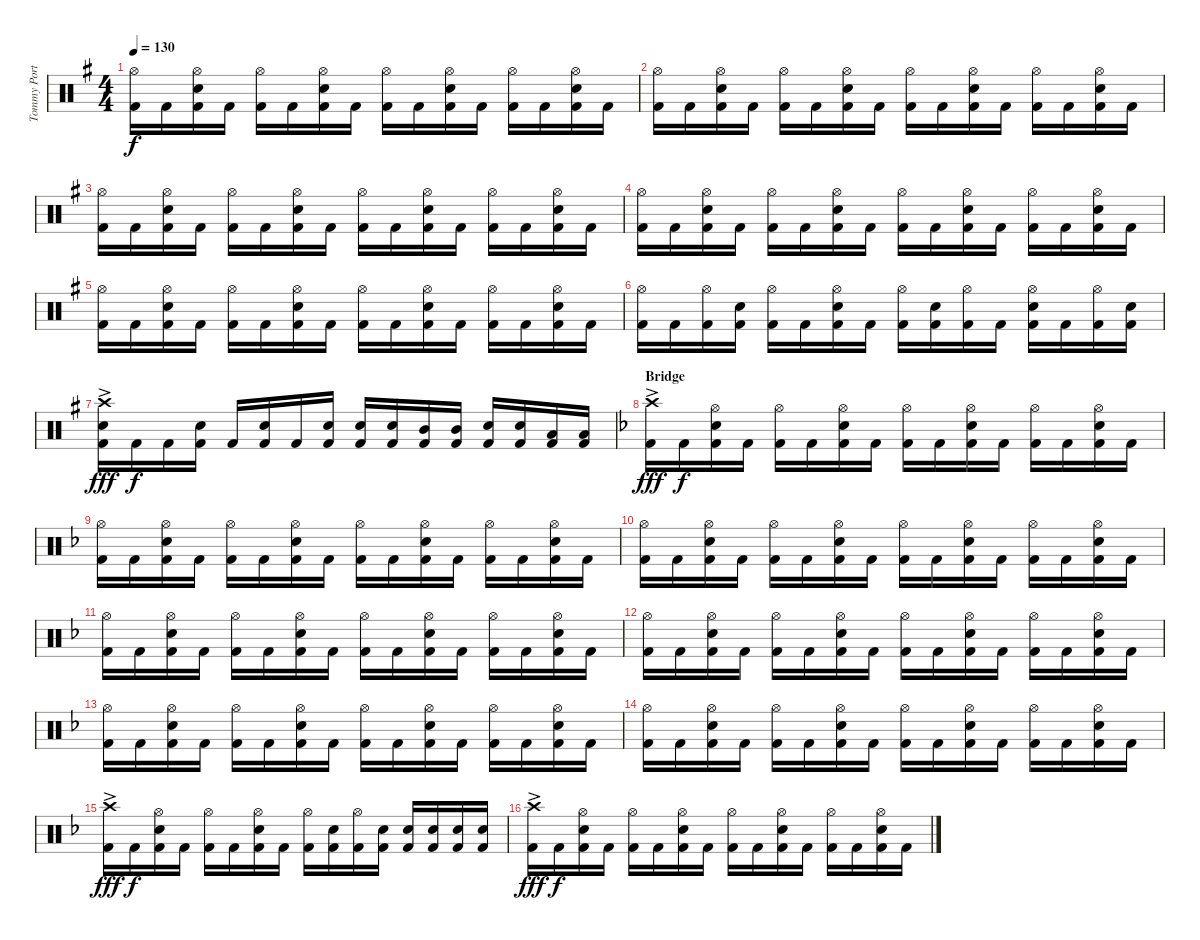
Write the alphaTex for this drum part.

\track ("Tommy Portimo" "Tommy Port") {instrument percussion}
\staff {score}
\articulation defaults
\ts (4 4)
\tempo 130
\clef neutral
\ks eminor
("Hi-Hat (open)" "Kick (hit) 2").16{dy f} "Kick (hit) 2".16 ("Hi-Hat (open)" "Electric Snare (hit)" "Kick (hit) 2").16 "Kick (hit) 2".16 ("Hi-Hat (open)" "Kick (hit) 2").16 "Kick (hit) 2".16 ("Hi-Hat (open)" "Electric Snare (hit)" "Kick (hit) 2").16 "Kick (hit) 2".16 ("Hi-Hat (open)" "Kick (hit) 2").16 "Kick (hit) 2".16 ("Hi-Hat (open)" "Electric Snare (hit)" "Kick (hit) 2").16 "Kick (hit) 2".16 ("Hi-Hat (open)" "Kick (hit) 2").16 "Kick (hit) 2".16 ("Hi-Hat (open)" "Electric Snare (hit)" "Kick (hit) 2").16 "Kick (hit) 2".16 |
("Hi-Hat (open)" "Kick (hit) 2").16 "Kick (hit) 2".16 ("Hi-Hat (open)" "Electric Snare (hit)" "Kick (hit) 2").16 "Kick (hit) 2".16 ("Hi-Hat (open)" "Kick (hit) 2").16 "Kick (hit) 2".16 ("Hi-Hat (open)" "Electric Snare (hit)" "Kick (hit) 2").16 "Kick (hit) 2".16 ("Hi-Hat (open)" "Kick (hit) 2").16 "Kick (hit) 2".16 ("Hi-Hat (open)" "Electric Snare (hit)" "Kick (hit) 2").16 "Kick (hit) 2".16 ("Hi-Hat (open)" "Kick (hit) 2").16 "Kick (hit) 2".16 ("Hi-Hat (open)" "Electric Snare (hit)" "Kick (hit) 2").16 "Kick (hit) 2".16 |
("Hi-Hat (open)" "Kick (hit) 2").16 "Kick (hit) 2".16 ("Hi-Hat (open)" "Electric Snare (hit)" "Kick (hit) 2").16 "Kick (hit) 2".16 ("Hi-Hat (open)" "Kick (hit) 2").16 "Kick (hit) 2".16 ("Hi-Hat (open)" "Electric Snare (hit)" "Kick (hit) 2").16 "Kick (hit) 2".16 ("Hi-Hat (open)" "Kick (hit) 2").16 "Kick (hit) 2".16 ("Hi-Hat (open)" "Electric Snare (hit)" "Kick (hit) 2").16 "Kick (hit) 2".16 ("Hi-Hat (open)" "Kick (hit) 2").16 "Kick (hit) 2".16 ("Hi-Hat (open)" "Electric Snare (hit)" "Kick (hit) 2").16 "Kick (hit) 2".16 |
("Hi-Hat (open)" "Kick (hit) 2").16 "Kick (hit) 2".16 ("Hi-Hat (open)" "Electric Snare (hit)" "Kick (hit) 2").16 "Kick (hit) 2".16 ("Hi-Hat (open)" "Kick (hit) 2").16 "Kick (hit) 2".16 ("Hi-Hat (open)" "Electric Snare (hit)" "Kick (hit) 2").16 "Kick (hit) 2".16 ("Hi-Hat (open)" "Kick (hit) 2").16 "Kick (hit) 2".16 ("Hi-Hat (open)" "Electric Snare (hit)" "Kick (hit) 2").16 "Kick (hit) 2".16 ("Hi-Hat (open)" "Kick (hit) 2").16 "Kick (hit) 2".16 ("Hi-Hat (open)" "Electric Snare (hit)" "Kick (hit) 2").16 "Kick (hit) 2".16 |
("Hi-Hat (open)" "Kick (hit) 2").16 "Kick (hit) 2".16 ("Hi-Hat (open)" "Electric Snare (hit)" "Kick (hit) 2").16 "Kick (hit) 2".16 ("Hi-Hat (open)" "Kick (hit) 2").16 "Kick (hit) 2".16 ("Hi-Hat (open)" "Electric Snare (hit)" "Kick (hit) 2").16 "Kick (hit) 2".16 ("Hi-Hat (open)" "Kick (hit) 2").16 "Kick (hit) 2".16 ("Hi-Hat (open)" "Electric Snare (hit)" "Kick (hit) 2").16 "Kick (hit) 2".16 ("Hi-Hat (open)" "Kick (hit) 2").16 "Kick (hit) 2".16 ("Hi-Hat (open)" "Electric Snare (hit)" "Kick (hit) 2").16 "Kick (hit) 2".16 |
("Hi-Hat (open)" "Kick (hit) 2").16 "Kick (hit) 2".16 ("Hi-Hat (open)" "Kick (hit) 2").16 ("Electric Snare (hit)" "Kick (hit) 2").16 ("Hi-Hat (open)" "Kick (hit) 2").16 "Kick (hit) 2".16 ("Hi-Hat (open)" "Electric Snare (hit)" "Kick (hit) 2").16 "Kick (hit) 2".16 ("Hi-Hat (open)" "Kick (hit) 2").16 ("Electric Snare (hit)" "Kick (hit) 2").16 ("Hi-Hat (open)" "Kick (hit) 2").16 "Kick (hit) 2".16 ("Hi-Hat (open)" "Electric Snare (hit)" "Kick (hit) 2").16 "Kick (hit) 2".16 ("Hi-Hat (open)" "Kick (hit) 2").16 ("Electric Snare (hit)" "Kick (hit) 2").16 |
("Crash high (hit)"{ac} "Electric Snare (hit)" "Kick (hit) 2").16{dy fff} "Kick (hit) 2".16{dy f} "Kick (hit) 2".16 ("Electric Snare (hit)" "Kick (hit) 2").16 "Kick (hit) 2".16 ("Electric Snare (hit)" "Kick (hit) 2").16 "Kick (hit) 2".16 ("Electric Snare (hit)" "Kick (hit) 2").16 ("Electric Snare (hit)" "Kick (hit) 2").16 ("Electric Snare (hit)" "Kick (hit) 2").16 ("Mid Tom (hit)" "Kick (hit) 2").16 ("Mid Tom (hit)" "Kick (hit) 2").16 ("Electric Snare (hit)" "Kick (hit) 2").16 ("Electric Snare (hit)" "Kick (hit) 2").16 ("Low Tom (hit)" "Kick (hit) 2").16 ("Low Tom (hit)" "Kick (hit) 2").16 |
\section ("" "Bridge")
\ks dminor
("Crash high (hit)"{ac} "Kick (hit) 2").16{dy fff} "Kick (hit) 2".16{dy f} ("Hi-Hat (open)" "Electric Snare (hit)" "Kick (hit) 2").16 "Kick (hit) 2".16 ("Hi-Hat (open)" "Kick (hit) 2").16 "Kick (hit) 2".16 ("Hi-Hat (open)" "Electric Snare (hit)" "Kick (hit) 2").16 "Kick (hit) 2".16 ("Hi-Hat (open)" "Kick (hit) 2").16 "Kick (hit) 2".16 ("Hi-Hat (open)" "Electric Snare (hit)" "Kick (hit) 2").16 "Kick (hit) 2".16 ("Hi-Hat (open)" "Kick (hit) 2").16 "Kick (hit) 2".16 ("Hi-Hat (open)" "Electric Snare (hit)" "Kick (hit) 2").16 "Kick (hit) 2".16 |
("Hi-Hat (open)" "Kick (hit) 2").16 "Kick (hit) 2".16 ("Hi-Hat (open)" "Electric Snare (hit)" "Kick (hit) 2").16 "Kick (hit) 2".16 ("Hi-Hat (open)" "Kick (hit) 2").16 "Kick (hit) 2".16 ("Hi-Hat (open)" "Electric Snare (hit)" "Kick (hit) 2").16 "Kick (hit) 2".16 ("Hi-Hat (open)" "Kick (hit) 2").16 "Kick (hit) 2".16 ("Hi-Hat (open)" "Electric Snare (hit)" "Kick (hit) 2").16 "Kick (hit) 2".16 ("Hi-Hat (open)" "Kick (hit) 2").16 "Kick (hit) 2".16 ("Hi-Hat (open)" "Electric Snare (hit)" "Kick (hit) 2").16 "Kick (hit) 2".16 |
("Hi-Hat (open)" "Kick (hit) 2").16 "Kick (hit) 2".16 ("Hi-Hat (open)" "Electric Snare (hit)" "Kick (hit) 2").16 "Kick (hit) 2".16 ("Hi-Hat (open)" "Kick (hit) 2").16 "Kick (hit) 2".16 ("Hi-Hat (open)" "Electric Snare (hit)" "Kick (hit) 2").16 "Kick (hit) 2".16 ("Hi-Hat (open)" "Kick (hit) 2").16 "Kick (hit) 2".16 ("Hi-Hat (open)" "Electric Snare (hit)" "Kick (hit) 2").16 "Kick (hit) 2".16 ("Hi-Hat (open)" "Kick (hit) 2").16 "Kick (hit) 2".16 ("Hi-Hat (open)" "Electric Snare (hit)" "Kick (hit) 2").16 "Kick (hit) 2".16 |
("Hi-Hat (open)" "Kick (hit) 2").16 "Kick (hit) 2".16 ("Hi-Hat (open)" "Electric Snare (hit)" "Kick (hit) 2").16 "Kick (hit) 2".16 ("Hi-Hat (open)" "Kick (hit) 2").16 "Kick (hit) 2".16 ("Hi-Hat (open)" "Electric Snare (hit)" "Kick (hit) 2").16 "Kick (hit) 2".16 ("Hi-Hat (open)" "Kick (hit) 2").16 "Kick (hit) 2".16 ("Hi-Hat (open)" "Electric Snare (hit)" "Kick (hit) 2").16 "Kick (hit) 2".16 ("Hi-Hat (open)" "Kick (hit) 2").16 "Kick (hit) 2".16 ("Hi-Hat (open)" "Electric Snare (hit)" "Kick (hit) 2").16 "Kick (hit) 2".16 |
("Hi-Hat (open)" "Kick (hit) 2").16 "Kick (hit) 2".16 ("Hi-Hat (open)" "Electric Snare (hit)" "Kick (hit) 2").16 "Kick (hit) 2".16 ("Hi-Hat (open)" "Kick (hit) 2").16 "Kick (hit) 2".16 ("Hi-Hat (open)" "Electric Snare (hit)" "Kick (hit) 2").16 "Kick (hit) 2".16 ("Hi-Hat (open)" "Kick (hit) 2").16 "Kick (hit) 2".16 ("Hi-Hat (open)" "Electric Snare (hit)" "Kick (hit) 2").16 "Kick (hit) 2".16 ("Hi-Hat (open)" "Kick (hit) 2").16 "Kick (hit) 2".16 ("Hi-Hat (open)" "Electric Snare (hit)" "Kick (hit) 2").16 "Kick (hit) 2".16 |
("Hi-Hat (open)" "Kick (hit) 2").16 "Kick (hit) 2".16 ("Hi-Hat (open)" "Electric Snare (hit)" "Kick (hit) 2").16 "Kick (hit) 2".16 ("Hi-Hat (open)" "Kick (hit) 2").16 "Kick (hit) 2".16 ("Hi-Hat (open)" "Electric Snare (hit)" "Kick (hit) 2").16 "Kick (hit) 2".16 ("Hi-Hat (open)" "Kick (hit) 2").16 "Kick (hit) 2".16 ("Hi-Hat (open)" "Electric Snare (hit)" "Kick (hit) 2").16 "Kick (hit) 2".16 ("Hi-Hat (open)" "Kick (hit) 2").16 "Kick (hit) 2".16 ("Hi-Hat (open)" "Electric Snare (hit)" "Kick (hit) 2").16 "Kick (hit) 2".16 |
("Hi-Hat (open)" "Kick (hit) 2").16 "Kick (hit) 2".16 ("Hi-Hat (open)" "Electric Snare (hit)" "Kick (hit) 2").16 "Kick (hit) 2".16 ("Hi-Hat (open)" "Kick (hit) 2").16 "Kick (hit) 2".16 ("Hi-Hat (open)" "Electric Snare (hit)" "Kick (hit) 2").16 "Kick (hit) 2".16 ("Hi-Hat (open)" "Kick (hit) 2").16 "Kick (hit) 2".16 ("Hi-Hat (open)" "Electric Snare (hit)" "Kick (hit) 2").16 "Kick (hit) 2".16 ("Hi-Hat (open)" "Kick (hit) 2").16 "Kick (hit) 2".16 ("Hi-Hat (open)" "Electric Snare (hit)" "Kick (hit) 2").16 "Kick (hit) 2".16 |
("Crash high (hit)"{ac} "Kick (hit) 2").16{dy fff} "Kick (hit) 2".16{dy f} ("Hi-Hat (open)" "Electric Snare (hit)" "Kick (hit) 2").16 "Kick (hit) 2".16 ("Hi-Hat (open)" "Kick (hit) 2").16 "Kick (hit) 2".16 ("Hi-Hat (open)" "Electric Snare (hit)" "Kick (hit) 2").16 "Kick (hit) 2".16 ("Hi-Hat (open)" "Kick (hit) 2").16 ("Electric Snare (hit)" "Kick (hit) 2").16 ("Hi-Hat (open)" "Kick (hit) 2").16 ("Electric Snare (hit)" "Kick (hit) 2").16 ("Electric Snare (hit)" "Kick (hit) 2").16 ("Electric Snare (hit)" "Kick (hit) 2").16 ("Electric Snare (hit)" "Kick (hit) 2").16 ("Electric Snare (hit)" "Kick (hit) 2").16 |
("Crash high (hit)"{ac} "Kick (hit) 2").16{dy fff} "Kick (hit) 2".16{dy f} ("Hi-Hat (open)" "Electric Snare (hit)" "Kick (hit) 2").16 "Kick (hit) 2".16 ("Hi-Hat (open)" "Kick (hit) 2").16 "Kick (hit) 2".16 ("Hi-Hat (open)" "Electric Snare (hit)" "Kick (hit) 2").16 "Kick (hit) 2".16 ("Hi-Hat (open)" "Kick (hit) 2").16 "Kick (hit) 2".16 ("Hi-Hat (open)" "Electric Snare (hit)" "Kick (hit) 2").16 "Kick (hit) 2".16 ("Hi-Hat (open)" "Kick (hit) 2").16 "Kick (hit) 2".16 ("Hi-Hat (open)" "Electric Snare (hit)" "Kick (hit) 2").16 "Kick (hit) 2".16
